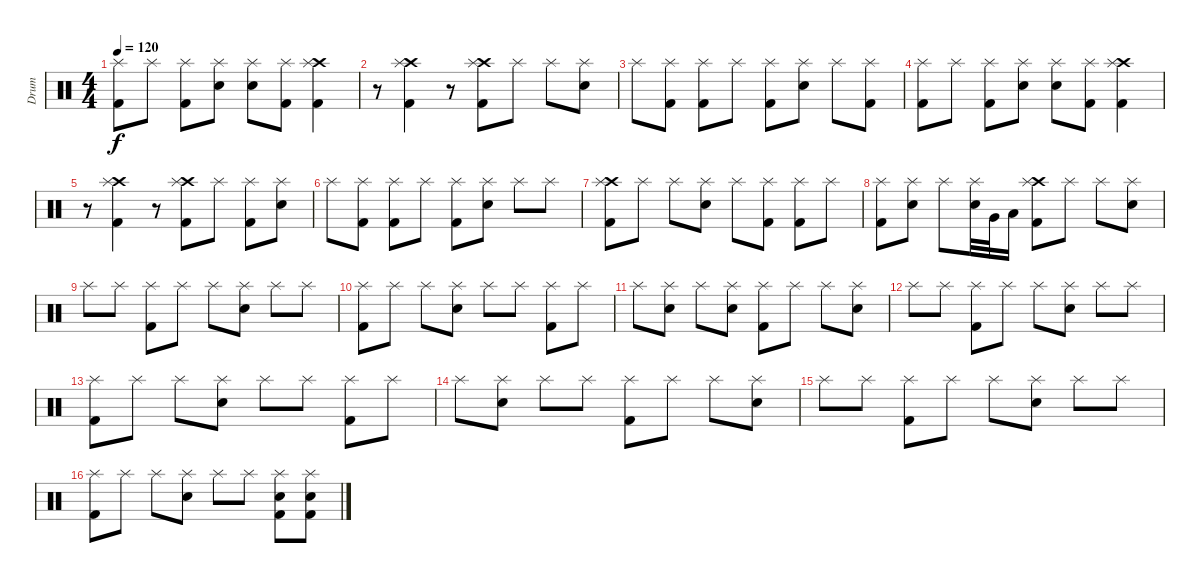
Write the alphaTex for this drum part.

\track ("Drum" "Drum") {instrument percussion}
\staff {score}
\articulation defaults
\ts (4 4)
\tempo 120
\clef neutral
\ks c
("Splash (hit)" "Kick (hit) 2").8{dy f} "Splash (hit)".8 ("Splash (hit)" "Kick (hit) 2").8 ("Splash (hit)" "Snare (hit) 2").8 ("Splash (hit)" "Snare (hit) 2").8 ("Splash (hit)" "Kick (hit) 2").8 ("Crash high (hit)" "Splash (hit)" "Kick (hit) 2").4 |
r.8 ("Crash high (hit)" "Splash (hit)" "Kick (hit) 2").4 r.8 ("Crash high (hit)" "Splash (hit)" "Kick (hit) 2").8 "Splash (hit)".8 "Splash (hit)".8 ("Splash (hit)" "Snare (hit) 2").8 |
"Splash (hit)".8 ("Splash (hit)" "Kick (hit) 2").8 ("Splash (hit)" "Kick (hit) 2").8 "Splash (hit)".8 ("Splash (hit)" "Kick (hit) 2").8 ("Splash (hit)" "Snare (hit) 2").8 "Splash (hit)".8 ("Splash (hit)" "Kick (hit) 2").8 |
("Splash (hit)" "Kick (hit) 2").8 "Splash (hit)".8 ("Splash (hit)" "Kick (hit) 2").8 ("Splash (hit)" "Snare (hit) 2").8 ("Splash (hit)" "Snare (hit) 2").8 ("Splash (hit)" "Kick (hit) 2").8 ("Crash high (hit)" "Splash (hit)" "Kick (hit) 2").4 |
r.8 ("Crash high (hit)" "Splash (hit)" "Kick (hit) 2").4 r.8 ("Crash high (hit)" "Splash (hit)" "Kick (hit) 2").8 "Splash (hit)".8 ("Splash (hit)" "Kick (hit) 2").8 ("Splash (hit)" "Snare (hit) 2").8 |
"Splash (hit)".8 ("Splash (hit)" "Kick (hit) 2").8 ("Splash (hit)" "Kick (hit) 2").8 "Splash (hit)".8 ("Splash (hit)" "Kick (hit) 2").8 ("Splash (hit)" "Snare (hit) 2").8 "Splash (hit)".8 "Splash (hit)".8 |
("Crash high (hit)" "Splash (hit)" "Kick (hit) 2").8 "Splash (hit)".8 "Splash (hit)".8 ("Splash (hit)" "Snare (hit) 2").8 "Splash (hit)".8 ("Splash (hit)" "Kick (hit) 2").8 ("Splash (hit)" "Kick (hit) 2").8 "Splash (hit)".8 |
("Splash (hit)" "Kick (hit) 2").8 ("Splash (hit)" "Snare (hit) 2").8 "Splash (hit)".8 ("Splash (hit)" "Snare (hit) 2").32 "Very Low Tom (hit)".32 "Low Tom (hit)".16 ("Crash high (hit)" "Splash (hit)" "Kick (hit) 2").8 "Splash (hit)".8 "Splash (hit)".8 ("Splash (hit)" "Snare (hit) 2").8 |
"Splash (hit)".8 "Splash (hit)".8 ("Splash (hit)" "Kick (hit) 2").8 "Splash (hit)".8 "Splash (hit)".8 ("Splash (hit)" "Snare (hit) 2").8 "Splash (hit)".8 "Splash (hit)".8 |
("Splash (hit)" "Kick (hit) 2").8 "Splash (hit)".8 "Splash (hit)".8 ("Splash (hit)" "Snare (hit) 2").8 "Splash (hit)".8 "Splash (hit)".8 ("Splash (hit)" "Kick (hit) 2").8 "Splash (hit)".8 |
"Splash (hit)".8 ("Splash (hit)" "Snare (hit) 2").8 "Splash (hit)".8 ("Splash (hit)" "Snare (hit) 2").8 ("Splash (hit)" "Kick (hit) 2").8 "Splash (hit)".8 "Splash (hit)".8 ("Splash (hit)" "Snare (hit) 2").8 |
"Splash (hit)".8 "Splash (hit)".8 ("Splash (hit)" "Kick (hit) 2").8 "Splash (hit)".8 "Splash (hit)".8 ("Splash (hit)" "Snare (hit) 2").8 "Splash (hit)".8 "Splash (hit)".8 |
("Splash (hit)" "Kick (hit) 2").8 "Splash (hit)".8 "Splash (hit)".8 ("Splash (hit)" "Snare (hit) 2").8 "Splash (hit)".8 "Splash (hit)".8 ("Splash (hit)" "Kick (hit) 2").8 "Splash (hit)".8 |
"Splash (hit)".8 ("Splash (hit)" "Snare (hit) 2").8 "Splash (hit)".8 "Splash (hit)".8 ("Splash (hit)" "Kick (hit) 2").8 "Splash (hit)".8 "Splash (hit)".8 ("Splash (hit)" "Snare (hit) 2").8 |
"Splash (hit)".8 "Splash (hit)".8 ("Splash (hit)" "Kick (hit) 2").8 "Splash (hit)".8 "Splash (hit)".8 ("Splash (hit)" "Snare (hit) 2").8 "Splash (hit)".8 "Splash (hit)".8 |
("Splash (hit)" "Kick (hit) 2").8 "Splash (hit)".8 "Splash (hit)".8 ("Splash (hit)" "Snare (hit) 2").8 "Splash (hit)".8 "Splash (hit)".8 ("Splash (hit)" "Snare (hit) 2" "Kick (hit) 2").8 ("Splash (hit)" "Snare (hit) 2" "Kick (hit) 2").8
